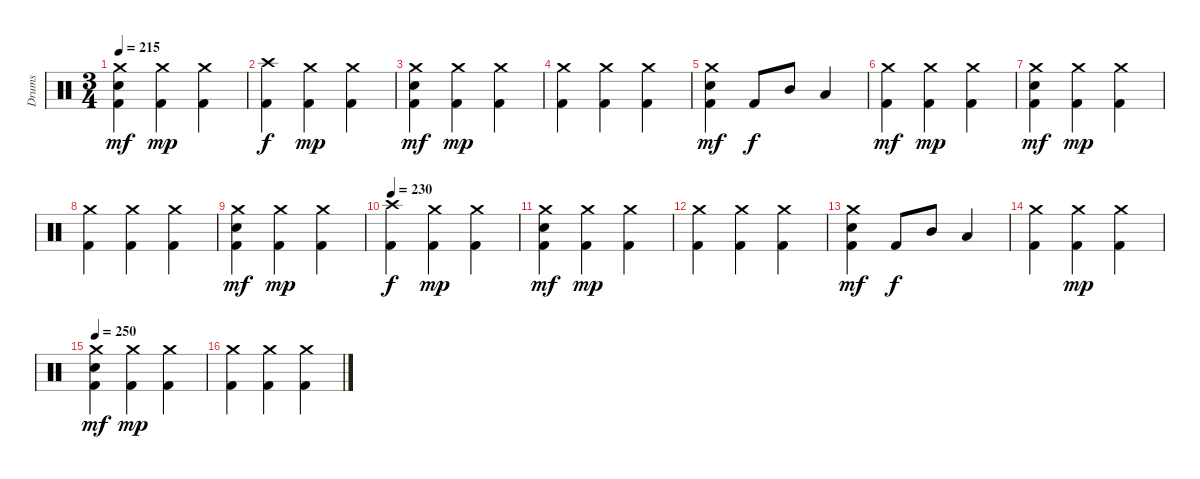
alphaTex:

\track ("Drums" "Drums") {instrument percussion}
\staff {score}
\articulation defaults
\ts (3 4)
\tempo 215
\clef neutral
\ks c
("Crash medium (hit)" "Electric Snare (hit)" "Kick (hit) 2").4{dy mf} ("Crash medium (hit)" "Kick (hit) 2").4{dy mp} ("Crash medium (hit)" "Kick (hit) 2").4 |
("Crash high (hit)" "Kick (hit) 2").4{dy f} ("Crash medium (hit)" "Kick (hit) 2").4{dy mp} ("Crash medium (hit)" "Kick (hit) 2").4 |
("Crash medium (hit)" "Electric Snare (hit)" "Kick (hit) 2").4{dy mf} ("Crash medium (hit)" "Kick (hit) 2").4{dy mp} ("Crash medium (hit)" "Kick (hit) 2").4 |
("Crash medium (hit)" "Kick (hit) 2").4 ("Crash medium (hit)" "Kick (hit) 2").4 ("Crash medium (hit)" "Kick (hit) 2").4 |
("Crash medium (hit)" "Electric Snare (hit)" "Kick (hit) 2").4{dy mf} "Kick (hit) 2".8{dy f} "Mid Tom (hit)".8 "Low Tom (hit)".4 |
("Crash medium (hit)" "Kick (hit) 2").4{dy mf} ("Crash medium (hit)" "Kick (hit) 2").4{dy mp} ("Crash medium (hit)" "Kick (hit) 2").4 |
("Crash medium (hit)" "Electric Snare (hit)" "Kick (hit) 2").4{dy mf} ("Crash medium (hit)" "Kick (hit) 2").4{dy mp} ("Crash medium (hit)" "Kick (hit) 2").4 |
("Crash medium (hit)" "Kick (hit) 2").4 ("Crash medium (hit)" "Kick (hit) 2").4 ("Crash medium (hit)" "Kick (hit) 2").4 |
("Crash medium (hit)" "Electric Snare (hit)" "Kick (hit) 2").4{dy mf} ("Crash medium (hit)" "Kick (hit) 2").4{dy mp} ("Crash medium (hit)" "Kick (hit) 2").4 |
\tempo 230
("Crash high (hit)" "Kick (hit) 2").4{dy f} ("Crash medium (hit)" "Kick (hit) 2").4{dy mp} ("Crash medium (hit)" "Kick (hit) 2").4 |
("Crash medium (hit)" "Electric Snare (hit)" "Kick (hit) 2").4{dy mf} ("Crash medium (hit)" "Kick (hit) 2").4{dy mp} ("Crash medium (hit)" "Kick (hit) 2").4 |
("Crash medium (hit)" "Kick (hit) 2").4 ("Crash medium (hit)" "Kick (hit) 2").4 ("Crash medium (hit)" "Kick (hit) 2").4 |
("Crash medium (hit)" "Electric Snare (hit)" "Kick (hit) 2").4{dy mf} "Kick (hit) 2".8{dy f} "Mid Tom (hit)".8 "Low Tom (hit)".4 |
("Crash medium (hit)" "Kick (hit) 2").4 ("Crash medium (hit)" "Kick (hit) 2").4{dy mp} ("Crash medium (hit)" "Kick (hit) 2").4 |
\tempo 250
("Crash medium (hit)" "Electric Snare (hit)" "Kick (hit) 2").4{dy mf} ("Crash medium (hit)" "Kick (hit) 2").4{dy mp} ("Crash medium (hit)" "Kick (hit) 2").4 |
("Crash medium (hit)" "Kick (hit) 2").4 ("Crash medium (hit)" "Kick (hit) 2").4 ("Crash medium (hit)" "Kick (hit) 2").4
